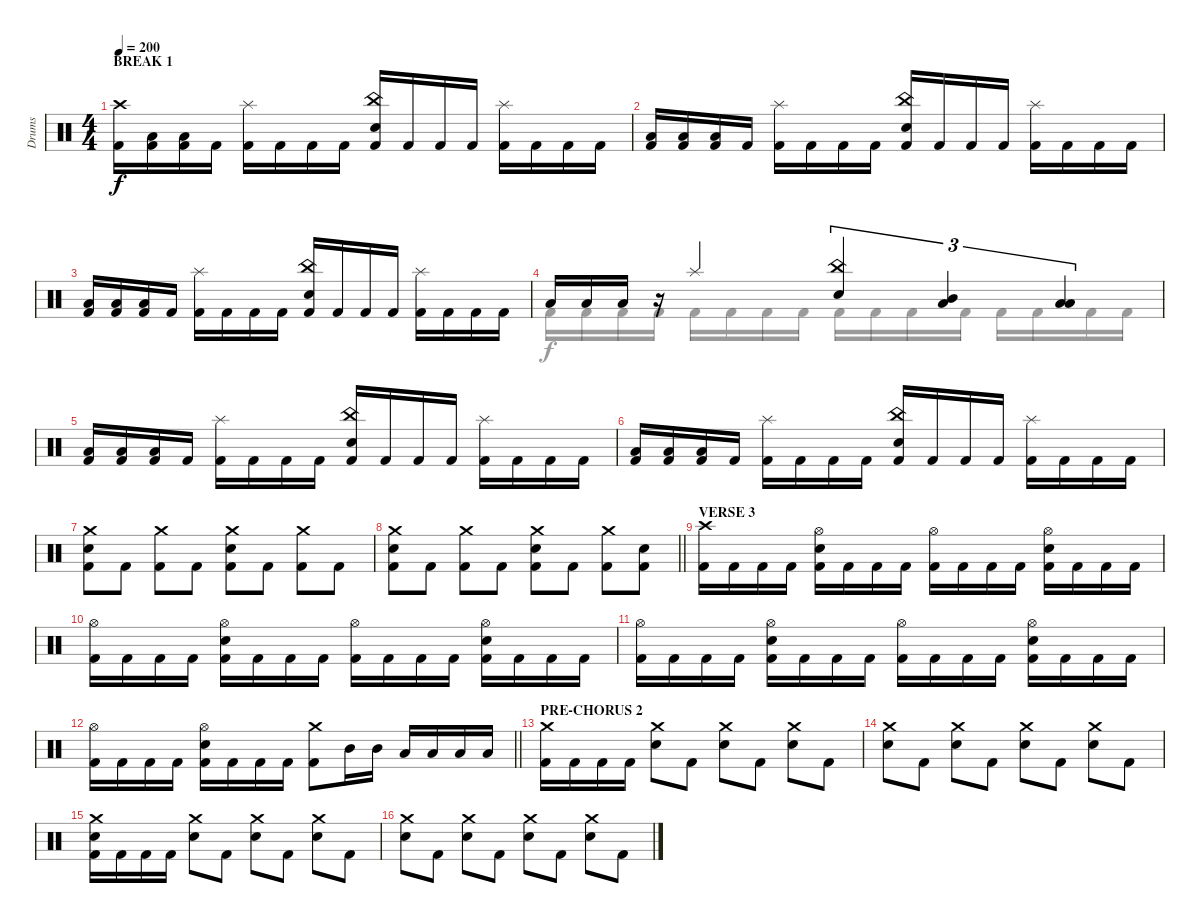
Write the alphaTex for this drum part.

\track ("Drums" "Drums") {instrument percussion}
\staff {score}
\articulation defaults
\voice
\ts (4 4)
\section ("" "BREAK 1")
\tempo 200
\clef neutral
\ks c
("Crash high (hit)" "Kick (hit) 2").16{dy f} ("Low Floor Tom (hit)" "Kick (hit) 2").16 ("Low Floor Tom (hit)" "Kick (hit) 2").16 "Kick (hit) 2".16 ("Splash (hit)" "Kick (hit) 2").16 "Kick (hit) 2".16 "Kick (hit) 2".16 "Kick (hit) 2".16 ("China (hit)" "Electric Snare (hit)" "Kick (hit) 2").16 "Kick (hit) 2".16 "Kick (hit) 2".16 "Kick (hit) 2".16 ("Splash (hit)" "Kick (hit) 2").16 "Kick (hit) 2".16 "Kick (hit) 2".16 "Kick (hit) 2".16 |
("Low Floor Tom (hit)" "Kick (hit) 2").16 ("Low Floor Tom (hit)" "Kick (hit) 2").16 ("Low Floor Tom (hit)" "Kick (hit) 2").16 "Kick (hit) 2".16 ("Splash (hit)" "Kick (hit) 2").16 "Kick (hit) 2".16 "Kick (hit) 2".16 "Kick (hit) 2".16 ("China (hit)" "Electric Snare (hit)" "Kick (hit) 2").16 "Kick (hit) 2".16 "Kick (hit) 2".16 "Kick (hit) 2".16 ("Splash (hit)" "Kick (hit) 2").16 "Kick (hit) 2".16 "Kick (hit) 2".16 "Kick (hit) 2".16 |
("Low Floor Tom (hit)" "Kick (hit) 2").16 ("Low Floor Tom (hit)" "Kick (hit) 2").16 ("Low Floor Tom (hit)" "Kick (hit) 2").16 "Kick (hit) 2".16 ("Splash (hit)" "Kick (hit) 2").16 "Kick (hit) 2".16 "Kick (hit) 2".16 "Kick (hit) 2".16 ("China (hit)" "Electric Snare (hit)" "Kick (hit) 2").16 "Kick (hit) 2".16 "Kick (hit) 2".16 "Kick (hit) 2".16 ("Splash (hit)" "Kick (hit) 2").16 "Kick (hit) 2".16 "Kick (hit) 2".16 "Kick (hit) 2".16 |
"Low Floor Tom (hit)".16 "Low Floor Tom (hit)".16 "Low Floor Tom (hit)".16 r.16 "Splash (hit)".4 ("China (hit)" "Electric Snare (hit)").4{tu (3 2)} ("Mid Tom (hit)" "Low Tom (hit)").4{tu (3 2)} ("Low Tom (hit)" "Low Floor Tom (hit)").4{tu (3 2)} |
("Low Floor Tom (hit)" "Kick (hit) 2").16 ("Low Floor Tom (hit)" "Kick (hit) 2").16 ("Low Floor Tom (hit)" "Kick (hit) 2").16 "Kick (hit) 2".16 ("Splash (hit)" "Kick (hit) 2").16 "Kick (hit) 2".16 "Kick (hit) 2".16 "Kick (hit) 2".16 ("China (hit)" "Electric Snare (hit)" "Kick (hit) 2").16 "Kick (hit) 2".16 "Kick (hit) 2".16 "Kick (hit) 2".16 ("Splash (hit)" "Kick (hit) 2").16 "Kick (hit) 2".16 "Kick (hit) 2".16 "Kick (hit) 2".16 |
("Low Floor Tom (hit)" "Kick (hit) 2").16 ("Low Floor Tom (hit)" "Kick (hit) 2").16 ("Low Floor Tom (hit)" "Kick (hit) 2").16 "Kick (hit) 2".16 ("Splash (hit)" "Kick (hit) 2").16 "Kick (hit) 2".16 "Kick (hit) 2".16 "Kick (hit) 2".16 ("China (hit)" "Electric Snare (hit)" "Kick (hit) 2").16 "Kick (hit) 2".16 "Kick (hit) 2".16 "Kick (hit) 2".16 ("Splash (hit)" "Kick (hit) 2").16 "Kick (hit) 2".16 "Kick (hit) 2".16 "Kick (hit) 2".16 |
("Crash medium (hit)" "Electric Snare (hit)" "Kick (hit) 2").8 "Kick (hit) 2".8 ("Crash medium (hit)" "Kick (hit) 2").8 "Kick (hit) 2".8 ("Crash medium (hit)" "Electric Snare (hit)" "Kick (hit) 2").8 "Kick (hit) 2".8 ("Crash medium (hit)" "Kick (hit) 2").8 "Kick (hit) 2".8 |
\barLineRight lightlight
("Crash medium (hit)" "Electric Snare (hit)" "Kick (hit) 2").8 "Kick (hit) 2".8 ("Crash medium (hit)" "Kick (hit) 2").8 "Kick (hit) 2".8 ("Crash medium (hit)" "Electric Snare (hit)" "Kick (hit) 2").8 "Kick (hit) 2".8 ("Crash medium (hit)" "Kick (hit) 2").8 ("Electric Snare (hit)" "Kick (hit) 2").8 |
\section ("" "VERSE 3")
("Crash high (hit)" "Kick (hit) 2").16 "Kick (hit) 2".16 "Kick (hit) 2".16 "Kick (hit) 2".16 ("Hi-Hat (open)" "Electric Snare (hit)" "Kick (hit) 2").16 "Kick (hit) 2".16 "Kick (hit) 2".16 "Kick (hit) 2".16 ("Hi-Hat (open)" "Kick (hit) 2").16 "Kick (hit) 2".16 "Kick (hit) 2".16 "Kick (hit) 2".16 ("Hi-Hat (open)" "Electric Snare (hit)" "Kick (hit) 2").16 "Kick (hit) 2".16 "Kick (hit) 2".16 "Kick (hit) 2".16 |
("Hi-Hat (open)" "Kick (hit) 2").16 "Kick (hit) 2".16 "Kick (hit) 2".16 "Kick (hit) 2".16 ("Hi-Hat (open)" "Electric Snare (hit)" "Kick (hit) 2").16 "Kick (hit) 2".16 "Kick (hit) 2".16 "Kick (hit) 2".16 ("Hi-Hat (open)" "Kick (hit) 2").16 "Kick (hit) 2".16 "Kick (hit) 2".16 "Kick (hit) 2".16 ("Hi-Hat (open)" "Electric Snare (hit)" "Kick (hit) 2").16 "Kick (hit) 2".16 "Kick (hit) 2".16 "Kick (hit) 2".16 |
("Hi-Hat (open)" "Kick (hit) 2").16 "Kick (hit) 2".16 "Kick (hit) 2".16 "Kick (hit) 2".16 ("Hi-Hat (open)" "Electric Snare (hit)" "Kick (hit) 2").16 "Kick (hit) 2".16 "Kick (hit) 2".16 "Kick (hit) 2".16 ("Hi-Hat (open)" "Kick (hit) 2").16 "Kick (hit) 2".16 "Kick (hit) 2".16 "Kick (hit) 2".16 ("Hi-Hat (open)" "Electric Snare (hit)" "Kick (hit) 2").16 "Kick (hit) 2".16 "Kick (hit) 2".16 "Kick (hit) 2".16 |
\barLineRight lightlight
("Hi-Hat (open)" "Kick (hit) 2").16 "Kick (hit) 2".16 "Kick (hit) 2".16 "Kick (hit) 2".16 ("Hi-Hat (open)" "Electric Snare (hit)" "Kick (hit) 2").16 "Kick (hit) 2".16 "Kick (hit) 2".16 "Kick (hit) 2".16 ("Crash medium (hit)" "Kick (hit) 2").8 "Mid Tom (hit)".16 "Mid Tom (hit)".16 "Low Tom (hit)".16 "Low Tom (hit)".16 "Low Floor Tom (hit)".16 "Low Floor Tom (hit)".16 |
\section ("" "PRE-CHORUS 2")
("Crash medium (hit)" "Kick (hit) 2").16 "Kick (hit) 2".16 "Kick (hit) 2".16 "Kick (hit) 2".16 ("Crash medium (hit)" "Electric Snare (hit)").8 "Kick (hit) 2".8 ("Crash medium (hit)" "Electric Snare (hit)").8 "Kick (hit) 2".8 ("Crash medium (hit)" "Electric Snare (hit)").8 "Kick (hit) 2".8 |
("Crash medium (hit)" "Electric Snare (hit)").8 "Kick (hit) 2".8 ("Crash medium (hit)" "Electric Snare (hit)").8 "Kick (hit) 2".8 ("Crash medium (hit)" "Electric Snare (hit)").8 "Kick (hit) 2".8 ("Crash medium (hit)" "Electric Snare (hit)").8 "Kick (hit) 2".8 |
("Crash medium (hit)" "Electric Snare (hit)" "Kick (hit) 2").16 "Kick (hit) 2".16 "Kick (hit) 2".16 "Kick (hit) 2".16 ("Crash medium (hit)" "Electric Snare (hit)").8 "Kick (hit) 2".8 ("Crash medium (hit)" "Electric Snare (hit)").8 "Kick (hit) 2".8 ("Crash medium (hit)" "Electric Snare (hit)").8 "Kick (hit) 2".8 |
("Crash medium (hit)" "Electric Snare (hit)").8 "Kick (hit) 2".8 ("Crash medium (hit)" "Electric Snare (hit)").8 "Kick (hit) 2".8 ("Crash medium (hit)" "Electric Snare (hit)").8 "Kick (hit) 2".8 ("Crash medium (hit)" "Electric Snare (hit)").8 "Kick (hit) 2".8
\voice
\clef neutral
\ottava regular
\simile none
\ks c
|
|
|
"Kick (hit) 2".16 "Kick (hit) 2".16 "Kick (hit) 2".16 "Kick (hit) 2".16 "Kick (hit) 2".16 "Kick (hit) 2".16 "Kick (hit) 2".16 "Kick (hit) 2".16 "Kick (hit) 2".16 "Kick (hit) 2".16 "Kick (hit) 2".16 "Kick (hit) 2".16 "Kick (hit) 2".16 "Kick (hit) 2".16 "Kick (hit) 2".16 "Kick (hit) 2".16 |
|
|
|
\barLineRight lightlight
|
|
|
|
\barLineRight lightlight
|
|
|
|
